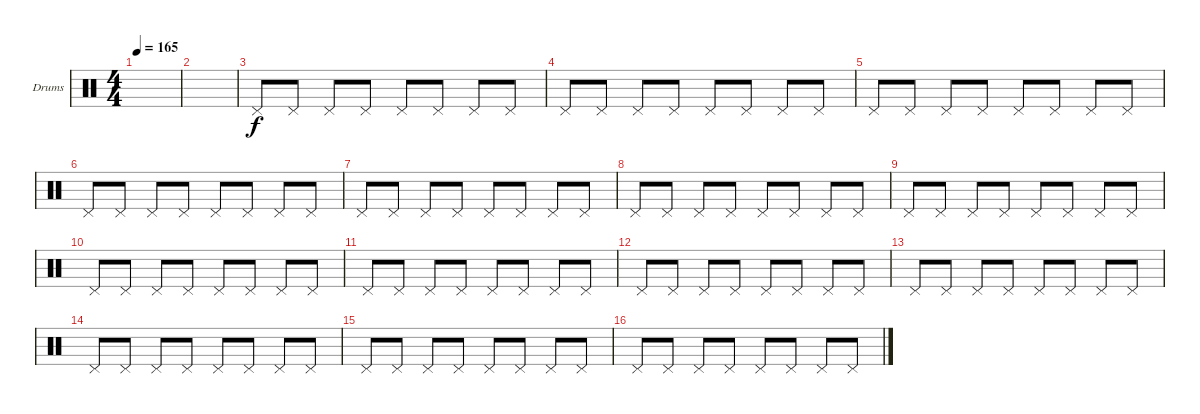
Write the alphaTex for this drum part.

\bracketExtendMode groupsimilarinstruments
\firstSystemTrackNameOrientation horizontal
\otherSystemsTrackNameOrientation horizontal
\track ("Drumkit" "Drums") {instrument percussion}
\staff {score}
\articulation defaults
\ts (4 4)
\tempo 165
\clef neutral
\ks c
|
|
"Pedal Hi-Hat (hit)".8 "Pedal Hi-Hat (hit)".8 "Pedal Hi-Hat (hit)".8 "Pedal Hi-Hat (hit)".8 "Pedal Hi-Hat (hit)".8 "Pedal Hi-Hat (hit)".8 "Pedal Hi-Hat (hit)".8 "Pedal Hi-Hat (hit)".8 |
"Pedal Hi-Hat (hit)".8 "Pedal Hi-Hat (hit)".8 "Pedal Hi-Hat (hit)".8 "Pedal Hi-Hat (hit)".8 "Pedal Hi-Hat (hit)".8 "Pedal Hi-Hat (hit)".8 "Pedal Hi-Hat (hit)".8 "Pedal Hi-Hat (hit)".8 |
"Pedal Hi-Hat (hit)".8 "Pedal Hi-Hat (hit)".8 "Pedal Hi-Hat (hit)".8 "Pedal Hi-Hat (hit)".8 "Pedal Hi-Hat (hit)".8 "Pedal Hi-Hat (hit)".8 "Pedal Hi-Hat (hit)".8 "Pedal Hi-Hat (hit)".8 |
"Pedal Hi-Hat (hit)".8 "Pedal Hi-Hat (hit)".8 "Pedal Hi-Hat (hit)".8 "Pedal Hi-Hat (hit)".8 "Pedal Hi-Hat (hit)".8 "Pedal Hi-Hat (hit)".8 "Pedal Hi-Hat (hit)".8 "Pedal Hi-Hat (hit)".8 |
"Pedal Hi-Hat (hit)".8 "Pedal Hi-Hat (hit)".8 "Pedal Hi-Hat (hit)".8 "Pedal Hi-Hat (hit)".8 "Pedal Hi-Hat (hit)".8 "Pedal Hi-Hat (hit)".8 "Pedal Hi-Hat (hit)".8 "Pedal Hi-Hat (hit)".8 |
"Pedal Hi-Hat (hit)".8 "Pedal Hi-Hat (hit)".8 "Pedal Hi-Hat (hit)".8 "Pedal Hi-Hat (hit)".8 "Pedal Hi-Hat (hit)".8 "Pedal Hi-Hat (hit)".8 "Pedal Hi-Hat (hit)".8 "Pedal Hi-Hat (hit)".8 |
"Pedal Hi-Hat (hit)".8 "Pedal Hi-Hat (hit)".8 "Pedal Hi-Hat (hit)".8 "Pedal Hi-Hat (hit)".8 "Pedal Hi-Hat (hit)".8 "Pedal Hi-Hat (hit)".8 "Pedal Hi-Hat (hit)".8 "Pedal Hi-Hat (hit)".8 |
"Pedal Hi-Hat (hit)".8 "Pedal Hi-Hat (hit)".8 "Pedal Hi-Hat (hit)".8 "Pedal Hi-Hat (hit)".8 "Pedal Hi-Hat (hit)".8 "Pedal Hi-Hat (hit)".8 "Pedal Hi-Hat (hit)".8 "Pedal Hi-Hat (hit)".8 |
"Pedal Hi-Hat (hit)".8 "Pedal Hi-Hat (hit)".8 "Pedal Hi-Hat (hit)".8 "Pedal Hi-Hat (hit)".8 "Pedal Hi-Hat (hit)".8 "Pedal Hi-Hat (hit)".8 "Pedal Hi-Hat (hit)".8 "Pedal Hi-Hat (hit)".8 |
"Pedal Hi-Hat (hit)".8 "Pedal Hi-Hat (hit)".8 "Pedal Hi-Hat (hit)".8 "Pedal Hi-Hat (hit)".8 "Pedal Hi-Hat (hit)".8 "Pedal Hi-Hat (hit)".8 "Pedal Hi-Hat (hit)".8 "Pedal Hi-Hat (hit)".8 |
"Pedal Hi-Hat (hit)".8 "Pedal Hi-Hat (hit)".8 "Pedal Hi-Hat (hit)".8 "Pedal Hi-Hat (hit)".8 "Pedal Hi-Hat (hit)".8 "Pedal Hi-Hat (hit)".8 "Pedal Hi-Hat (hit)".8 "Pedal Hi-Hat (hit)".8 |
"Pedal Hi-Hat (hit)".8 "Pedal Hi-Hat (hit)".8 "Pedal Hi-Hat (hit)".8 "Pedal Hi-Hat (hit)".8 "Pedal Hi-Hat (hit)".8 "Pedal Hi-Hat (hit)".8 "Pedal Hi-Hat (hit)".8 "Pedal Hi-Hat (hit)".8 |
"Pedal Hi-Hat (hit)".8 "Pedal Hi-Hat (hit)".8 "Pedal Hi-Hat (hit)".8 "Pedal Hi-Hat (hit)".8 "Pedal Hi-Hat (hit)".8 "Pedal Hi-Hat (hit)".8 "Pedal Hi-Hat (hit)".8 "Pedal Hi-Hat (hit)".8 |
"Pedal Hi-Hat (hit)".8 "Pedal Hi-Hat (hit)".8 "Pedal Hi-Hat (hit)".8 "Pedal Hi-Hat (hit)".8 "Pedal Hi-Hat (hit)".8 "Pedal Hi-Hat (hit)".8 "Pedal Hi-Hat (hit)".8 "Pedal Hi-Hat (hit)".8
